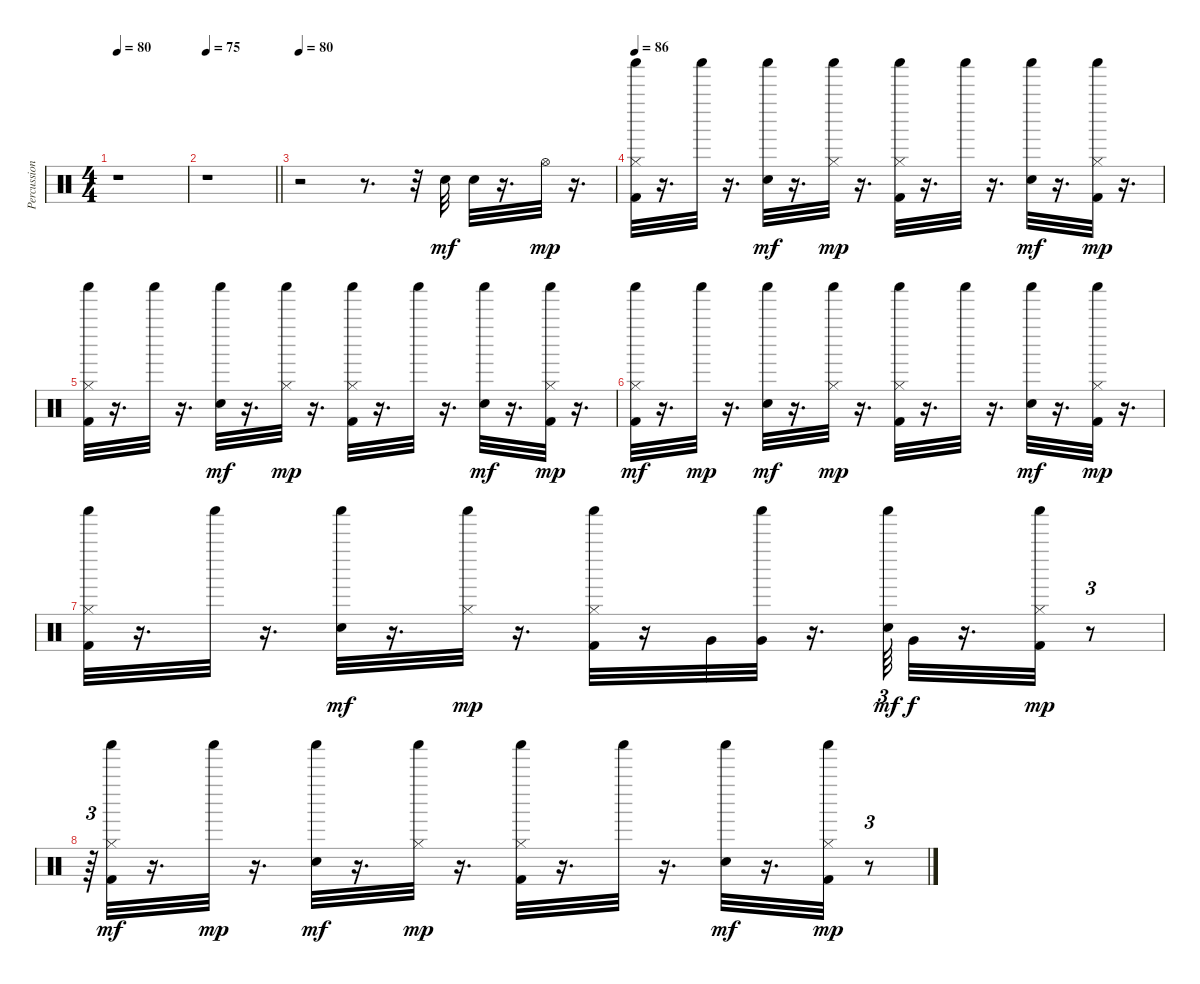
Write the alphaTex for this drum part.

\track ("Percussion" "Percussion") {instrument percussion}
\staff {score}
\articulation defaults
\ts (4 4)
\tempo 80
\clef neutral
\ks c
r.1{dy mf} |
\tempo 75
\barLineRight lightlight
r.1 |
\tempo 80
r.2 r.8{d} r.32 "Snare (hit) 2".32 "Snare (hit) 2".32 r.16{d} "Hi-Hat (open)".32{dy mp} r.16{d} |
\tempo 86
("Kick (hit) 2" "Shaker (hit)" "Hi-Hat (closed)").32 r.16{d} "Shaker (hit)".32 r.16{d} ("Shaker (hit)" "Snare (hit) 2").32{dy mf} r.16{d} ("Shaker (hit)" "Hi-Hat (closed)").32{dy mp} r.16{d} ("Kick (hit) 2" "Shaker (hit)" "Hi-Hat (closed)").32 r.16{d} "Shaker (hit)".32 r.16{d} ("Shaker (hit)" "Snare (hit) 2").32{dy mf} r.16{d} ("Kick (hit) 2" "Shaker (hit)" "Hi-Hat (closed)").32{dy mp} r.16{d} |
("Kick (hit) 2" "Shaker (hit)" "Hi-Hat (closed)").32 r.16{d} "Shaker (hit)".32 r.16{d} ("Shaker (hit)" "Snare (hit) 2").32{dy mf} r.16{d} ("Shaker (hit)" "Hi-Hat (closed)").32{dy mp} r.16{d} ("Kick (hit) 2" "Shaker (hit)" "Hi-Hat (closed)").32 r.16{d} "Shaker (hit)".32 r.16{d} ("Shaker (hit)" "Snare (hit) 2").32{dy mf} r.16{d} ("Kick (hit) 2" "Shaker (hit)" "Hi-Hat (closed)").32{dy mp} r.16{d} |
("Hi-Hat (closed)" "Shaker (hit)" "Kick (hit) 2").32{dy mf} r.16{d} "Shaker (hit)".32{dy mp} r.16{d} ("Shaker (hit)" "Snare (hit) 2").32{dy mf} r.16{d} ("Shaker (hit)" "Hi-Hat (closed)").32{dy mp} r.16{d} ("Kick (hit) 2" "Shaker (hit)" "Hi-Hat (closed)").32 r.16{d} "Shaker (hit)".32 r.16{d} ("Shaker (hit)" "Snare (hit) 2").32{dy mf} r.16{d} ("Kick (hit) 2" "Shaker (hit)" "Hi-Hat (closed)").32{dy mp} r.16{d} |
("Kick (hit) 2" "Shaker (hit)" "Hi-Hat (closed)").32 r.16{d} "Shaker (hit)".32 r.16{d} ("Shaker (hit)" "Snare (hit) 2").32{dy mf} r.16{d} ("Shaker (hit)" "Hi-Hat (closed)").32{dy mp} r.16{d} ("Kick (hit) 2" "Shaker (hit)" "Hi-Hat (closed)").32 r.16 "Very Low Tom (hit)".32 ("Very Low Tom (hit)" "Shaker (hit)").32 r.16{d} ("Shaker (hit)" "Snare (hit) 2").64{tu (3 2) dy mf} "Very Low Tom (hit)".32{dy f} r.16{d} ("Kick (hit) 2" "Shaker (hit)" "Hi-Hat (closed)").32{dy mp} r.8{tu (3 2)} |
r.64{tu (3 2)} ("Hi-Hat (closed)" "Shaker (hit)" "Kick (hit) 2").32{dy mf} r.16{d} "Shaker (hit)".32{dy mp} r.16{d} ("Shaker (hit)" "Snare (hit) 2").32{dy mf} r.16{d} ("Shaker (hit)" "Hi-Hat (closed)").32{dy mp} r.16{d} ("Kick (hit) 2" "Shaker (hit)" "Hi-Hat (closed)").32 r.16{d} "Shaker (hit)".32 r.16{d} ("Shaker (hit)" "Snare (hit) 2").32{dy mf} r.16{d} ("Kick (hit) 2" "Shaker (hit)" "Hi-Hat (closed)").32{dy mp} r.8{tu (3 2)}
